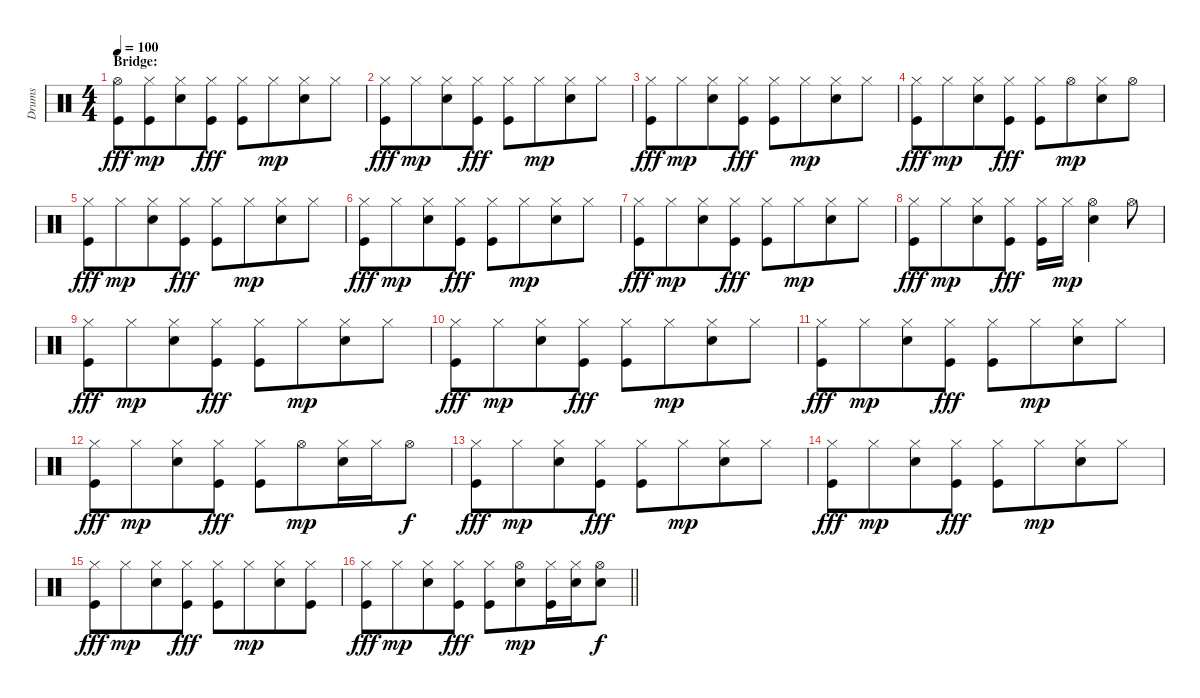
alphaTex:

\track ("Drums" "Drums") {instrument percussion}
\staff {score}
\articulation defaults
\ts (4 4)
\section ("" "Bridge:")
\tempo 100
\clef neutral
\ks c
("Hi-Hat (open)" "Kick (hit)").8{dy fff} ("Hi-Hat (closed)" "Kick (hit)").8{dy mp beam merge} ("Hi-Hat (closed)" "Snare (hit) 2").8 ("Hi-Hat (closed)" "Kick (hit)").8{dy fff} ("Hi-Hat (closed)" "Kick (hit)").8 "Hi-Hat (closed)".8{dy mp beam merge} ("Hi-Hat (closed)" "Snare (hit) 2").8 "Hi-Hat (closed)".8 |
("Hi-Hat (closed)" "Kick (hit)").8{dy fff} "Hi-Hat (closed)".8{dy mp beam merge} ("Hi-Hat (closed)" "Snare (hit) 2").8 ("Hi-Hat (closed)" "Kick (hit)").8{dy fff} ("Hi-Hat (closed)" "Kick (hit)").8 "Hi-Hat (closed)".8{dy mp beam merge} ("Hi-Hat (closed)" "Snare (hit) 2").8 "Hi-Hat (closed)".8 |
("Hi-Hat (closed)" "Kick (hit)").8{dy fff} "Hi-Hat (closed)".8{dy mp beam merge} ("Hi-Hat (closed)" "Snare (hit) 2").8 ("Hi-Hat (closed)" "Kick (hit)").8{dy fff} ("Hi-Hat (closed)" "Kick (hit)").8 "Hi-Hat (closed)".8{dy mp beam merge} ("Hi-Hat (closed)" "Snare (hit) 2").8 "Hi-Hat (closed)".8 |
("Hi-Hat (closed)" "Kick (hit)").8{dy fff} "Hi-Hat (closed)".8{dy mp beam merge} ("Hi-Hat (closed)" "Snare (hit) 2").8 ("Hi-Hat (closed)" "Kick (hit)").8{dy fff} ("Hi-Hat (closed)" "Kick (hit)").8 "Hi-Hat (open)".8{dy mp beam merge} ("Hi-Hat (closed)" "Snare (hit) 2").8 "Hi-Hat (open)".8 |
("Hi-Hat (closed)" "Kick (hit)").8{dy fff} "Hi-Hat (closed)".8{dy mp beam merge} ("Hi-Hat (closed)" "Snare (hit) 2").8 ("Hi-Hat (closed)" "Kick (hit)").8{dy fff} ("Hi-Hat (closed)" "Kick (hit)").8 "Hi-Hat (closed)".8{dy mp beam merge} ("Hi-Hat (closed)" "Snare (hit) 2").8 "Hi-Hat (closed)".8 |
("Hi-Hat (closed)" "Kick (hit)").8{dy fff} "Hi-Hat (closed)".8{dy mp beam merge} ("Hi-Hat (closed)" "Snare (hit) 2").8 ("Hi-Hat (closed)" "Kick (hit)").8{dy fff} ("Hi-Hat (closed)" "Kick (hit)").8 "Hi-Hat (closed)".8{dy mp beam merge} ("Hi-Hat (closed)" "Snare (hit) 2").8 "Hi-Hat (closed)".8 |
("Hi-Hat (closed)" "Kick (hit)").8{dy fff} "Hi-Hat (closed)".8{dy mp beam merge} ("Hi-Hat (closed)" "Snare (hit) 2").8 ("Hi-Hat (closed)" "Kick (hit)").8{dy fff} ("Hi-Hat (closed)" "Kick (hit)").8 "Hi-Hat (closed)".8{dy mp beam merge} ("Hi-Hat (closed)" "Snare (hit) 2").8 "Hi-Hat (closed)".8 |
("Hi-Hat (closed)" "Kick (hit)").8{dy fff} "Hi-Hat (closed)".8{dy mp beam merge} ("Hi-Hat (closed)" "Snare (hit) 2").8 ("Hi-Hat (closed)" "Kick (hit)").8{dy fff} ("Hi-Hat (closed)" "Kick (hit)").16 "Hi-Hat (closed)".16{dy mp beam merge} ("Hi-Hat (open)" "Snare (hit) 2").4 "Hi-Hat (open)".8 |
("Hi-Hat (closed)" "Kick (hit)").8{dy fff} "Hi-Hat (closed)".8{dy mp beam merge} ("Hi-Hat (closed)" "Snare (hit) 2").8 ("Hi-Hat (closed)" "Kick (hit)").8{dy fff} ("Hi-Hat (closed)" "Kick (hit)").8 "Hi-Hat (closed)".8{dy mp beam merge} ("Hi-Hat (closed)" "Snare (hit) 2").8 "Hi-Hat (closed)".8 |
("Hi-Hat (closed)" "Kick (hit)").8{dy fff} "Hi-Hat (closed)".8{dy mp beam merge} ("Hi-Hat (closed)" "Snare (hit) 2").8 ("Hi-Hat (closed)" "Kick (hit)").8{dy fff} ("Hi-Hat (closed)" "Kick (hit)").8 "Hi-Hat (closed)".8{dy mp beam merge} ("Hi-Hat (closed)" "Snare (hit) 2").8 "Hi-Hat (closed)".8 |
("Hi-Hat (closed)" "Kick (hit)").8{dy fff} "Hi-Hat (closed)".8{dy mp beam merge} ("Hi-Hat (closed)" "Snare (hit) 2").8 ("Hi-Hat (closed)" "Kick (hit)").8{dy fff} ("Hi-Hat (closed)" "Kick (hit)").8 "Hi-Hat (closed)".8{dy mp beam merge} ("Hi-Hat (closed)" "Snare (hit) 2").8 "Hi-Hat (closed)".8 |
("Hi-Hat (closed)" "Kick (hit)").8{dy fff} "Hi-Hat (closed)".8{dy mp beam merge} ("Hi-Hat (closed)" "Snare (hit) 2").8 ("Hi-Hat (closed)" "Kick (hit)").8{dy fff} ("Hi-Hat (closed)" "Kick (hit)").8 "Hi-Hat (open)".8{dy mp beam merge} ("Hi-Hat (closed)" "Snare (hit) 2").16 "Hi-Hat (closed)".16 "Hi-Hat (open)".8{dy f} |
("Hi-Hat (closed)" "Kick (hit)").8{dy fff} "Hi-Hat (closed)".8{dy mp beam merge} ("Hi-Hat (closed)" "Snare (hit) 2").8 ("Hi-Hat (closed)" "Kick (hit)").8{dy fff} ("Hi-Hat (closed)" "Kick (hit)").8 "Hi-Hat (closed)".8{dy mp beam merge} ("Hi-Hat (closed)" "Snare (hit) 2").8 "Hi-Hat (closed)".8 |
("Hi-Hat (closed)" "Kick (hit)").8{dy fff} "Hi-Hat (closed)".8{dy mp beam merge} ("Hi-Hat (closed)" "Snare (hit) 2").8 ("Hi-Hat (closed)" "Kick (hit)").8{dy fff} ("Hi-Hat (closed)" "Kick (hit)").8 "Hi-Hat (closed)".8{dy mp beam merge} ("Hi-Hat (closed)" "Snare (hit) 2").8 "Hi-Hat (closed)".8 |
("Hi-Hat (closed)" "Kick (hit)").8{dy fff} "Hi-Hat (closed)".8{dy mp beam merge} ("Hi-Hat (closed)" "Snare (hit) 2").8 ("Hi-Hat (closed)" "Kick (hit)").8{dy fff} ("Hi-Hat (closed)" "Kick (hit)").8 "Hi-Hat (closed)".8{dy mp beam merge} ("Hi-Hat (closed)" "Snare (hit) 2").8 ("Hi-Hat (closed)" "Kick (hit)").8 |
\barLineRight lightlight
("Hi-Hat (closed)" "Kick (hit)").8{dy fff} "Hi-Hat (closed)".8{dy mp beam merge} ("Hi-Hat (closed)" "Snare (hit) 2").8 ("Hi-Hat (closed)" "Kick (hit)").8{dy fff} ("Hi-Hat (closed)" "Kick (hit)").8 ("Hi-Hat (open)" "Snare (hit) 2").8{dy mp beam merge} ("Hi-Hat (closed)" "Kick (hit)").16 ("Hi-Hat (closed)" "Snare (hit) 2").16 ("Hi-Hat (open)" "Snare (hit) 2").8{dy f}
